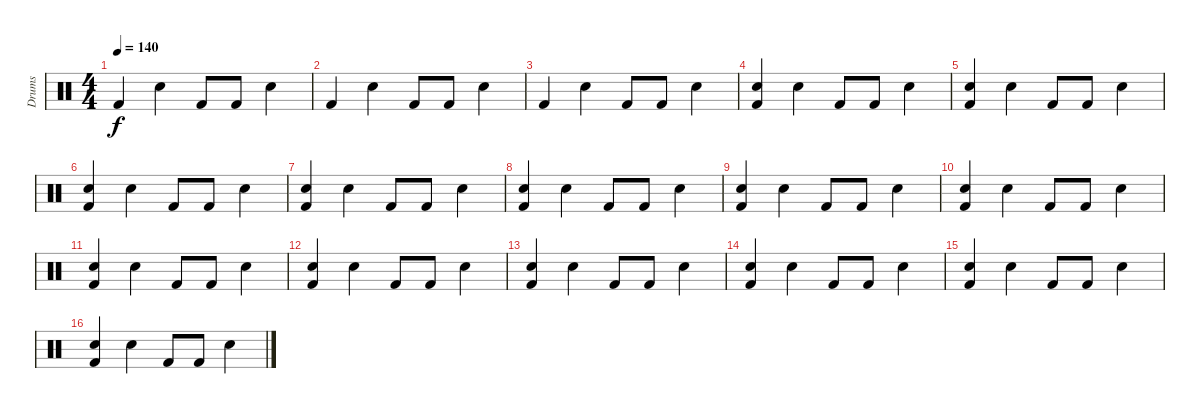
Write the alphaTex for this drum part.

\track ("Drums" "Drums") {instrument percussion}
\staff {score}
\articulation defaults
\ts (4 4)
\tempo 140
\clef neutral
\ks c "Kick (hit) 2".4{dy f} "Snare (hit) 2".4 "Kick (hit) 2".8 "Kick (hit) 2".8 "Snare (hit) 2".4
|
"Kick (hit) 2".4 "Snare (hit) 2".4 "Kick (hit) 2".8 "Kick (hit) 2".8 "Snare (hit) 2".4 |
"Kick (hit) 2".4 "Snare (hit) 2".4 "Kick (hit) 2".8 "Kick (hit) 2".8 "Snare (hit) 2".4 |
("Kick (hit) 2" "Snare (hit) 2").4 "Snare (hit) 2".4 "Kick (hit) 2".8 "Kick (hit) 2".8 "Snare (hit) 2".4 |
("Kick (hit) 2" "Snare (hit) 2").4 "Snare (hit) 2".4 "Kick (hit) 2".8 "Kick (hit) 2".8 "Snare (hit) 2".4 |
("Kick (hit) 2" "Snare (hit) 2").4 "Snare (hit) 2".4 "Kick (hit) 2".8 "Kick (hit) 2".8 "Snare (hit) 2".4 |
("Kick (hit) 2" "Snare (hit) 2").4 "Snare (hit) 2".4 "Kick (hit) 2".8 "Kick (hit) 2".8 "Snare (hit) 2".4 |
("Kick (hit) 2" "Snare (hit) 2").4 "Snare (hit) 2".4 "Kick (hit) 2".8 "Kick (hit) 2".8 "Snare (hit) 2".4 |
("Kick (hit) 2" "Snare (hit) 2").4 "Snare (hit) 2".4 "Kick (hit) 2".8 "Kick (hit) 2".8 "Snare (hit) 2".4 |
("Kick (hit) 2" "Snare (hit) 2").4 "Snare (hit) 2".4 "Kick (hit) 2".8 "Kick (hit) 2".8 "Snare (hit) 2".4 |
("Kick (hit) 2" "Snare (hit) 2").4 "Snare (hit) 2".4 "Kick (hit) 2".8 "Kick (hit) 2".8 "Snare (hit) 2".4 |
("Kick (hit) 2" "Snare (hit) 2").4 "Snare (hit) 2".4 "Kick (hit) 2".8 "Kick (hit) 2".8 "Snare (hit) 2".4 |
("Kick (hit) 2" "Snare (hit) 2").4 "Snare (hit) 2".4 "Kick (hit) 2".8 "Kick (hit) 2".8 "Snare (hit) 2".4 |
("Kick (hit) 2" "Snare (hit) 2").4 "Snare (hit) 2".4 "Kick (hit) 2".8 "Kick (hit) 2".8 "Snare (hit) 2".4 |
("Kick (hit) 2" "Snare (hit) 2").4 "Snare (hit) 2".4 "Kick (hit) 2".8 "Kick (hit) 2".8 "Snare (hit) 2".4 |
("Kick (hit) 2" "Snare (hit) 2").4 "Snare (hit) 2".4 "Kick (hit) 2".8 "Kick (hit) 2".8 "Snare (hit) 2".4
